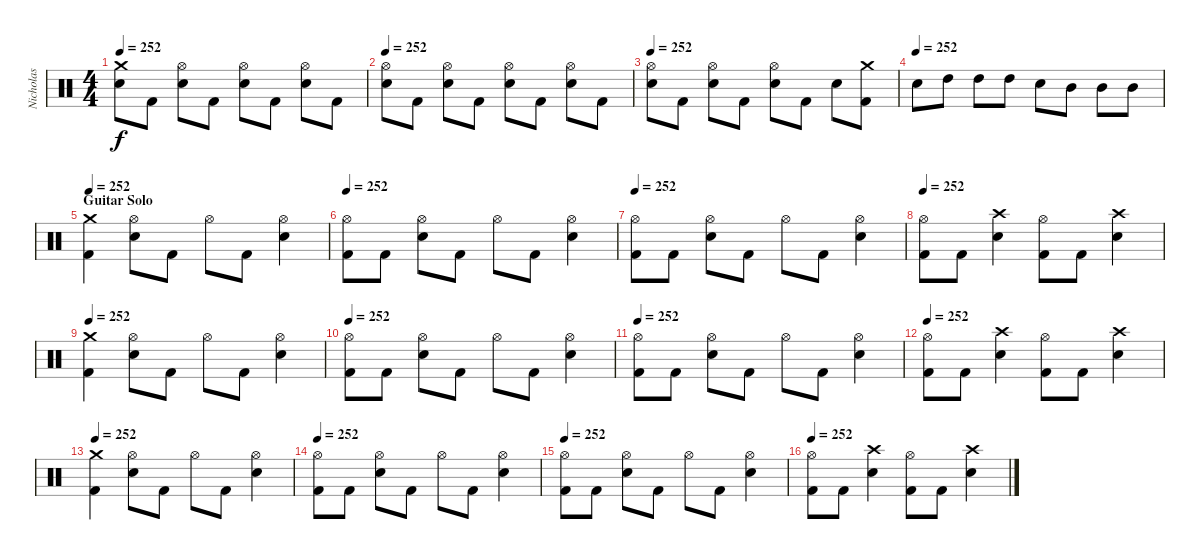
\track ("Nicholas" "Nicholas") {instrument percussion}
\staff {score}
\articulation defaults
\ts (4 4)
\tempo 252
\clef neutral
\ks c
("Crash medium (hit)" "Snare (hit) 2").8{dy f} "Kick (hit) 2".8 ("Hi-Hat (open)" "Snare (hit) 2").8 "Kick (hit) 2".8 ("Hi-Hat (open)" "Snare (hit) 2").8 "Kick (hit) 2".8 ("Hi-Hat (open)" "Snare (hit) 2").8 "Kick (hit) 2".8 |
\tempo 252
("Hi-Hat (open)" "Snare (hit) 2").8 "Kick (hit) 2".8 ("Hi-Hat (open)" "Snare (hit) 2").8 "Kick (hit) 2".8 ("Hi-Hat (open)" "Snare (hit) 2").8 "Kick (hit) 2".8 ("Hi-Hat (open)" "Snare (hit) 2").8 "Kick (hit) 2".8 |
\tempo 252
("Hi-Hat (open)" "Snare (hit) 2").8 "Kick (hit) 2".8 ("Hi-Hat (open)" "Snare (hit) 2").8 "Kick (hit) 2".8 ("Hi-Hat (open)" "Snare (hit) 2").8 "Kick (hit) 2".8 "Snare (hit) 2".8 ("Crash medium (hit)" "Kick (hit) 2").8 |
\tempo (252)
"Snare (hit) 2".8 "High Tom (hit)".8 "High Tom (hit)".8 "High Tom (hit)".8 "Snare (hit) 2".8 "Mid Tom (hit)".8 "Mid Tom (hit)".8 "Mid Tom (hit)".8 |
\section ("" "Guitar Solo")
\tempo 252
("Crash medium (hit)" "Kick (hit) 2").4 ("Hi-Hat (open)" "Snare (hit) 2").8 "Kick (hit) 2".8 "Hi-Hat (open)".8 "Kick (hit) 2".8 ("Hi-Hat (open)" "Snare (hit) 2").4 |
\tempo 252
("Hi-Hat (open)" "Kick (hit) 2").8 "Kick (hit) 2".8 ("Hi-Hat (open)" "Snare (hit) 2").8 "Kick (hit) 2".8 "Hi-Hat (open)".8 "Kick (hit) 2".8 ("Hi-Hat (open)" "Snare (hit) 2").4 |
\tempo 252
("Hi-Hat (open)" "Kick (hit) 2").8 "Kick (hit) 2".8 ("Hi-Hat (open)" "Snare (hit) 2").8 "Kick (hit) 2".8 "Hi-Hat (open)".8 "Kick (hit) 2".8 ("Hi-Hat (open)" "Snare (hit) 2").4 |
\tempo 252
("Hi-Hat (open)" "Kick (hit) 2").8 "Kick (hit) 2".8 ("Crash high (hit)" "Snare (hit) 2").4 ("Hi-Hat (open)" "Kick (hit) 2").8 "Kick (hit) 2".8 ("Crash high (hit)" "Snare (hit) 2").4 |
\tempo 252
("Crash medium (hit)" "Kick (hit) 2").4 ("Hi-Hat (open)" "Snare (hit) 2").8 "Kick (hit) 2".8 "Hi-Hat (open)".8 "Kick (hit) 2".8 ("Hi-Hat (open)" "Snare (hit) 2").4 |
\tempo 252
("Hi-Hat (open)" "Kick (hit) 2").8 "Kick (hit) 2".8 ("Hi-Hat (open)" "Snare (hit) 2").8 "Kick (hit) 2".8 "Hi-Hat (open)".8 "Kick (hit) 2".8 ("Hi-Hat (open)" "Snare (hit) 2").4 |
\tempo 252
("Hi-Hat (open)" "Kick (hit) 2").8 "Kick (hit) 2".8 ("Hi-Hat (open)" "Snare (hit) 2").8 "Kick (hit) 2".8 "Hi-Hat (open)".8 "Kick (hit) 2".8 ("Hi-Hat (open)" "Snare (hit) 2").4 |
\tempo 252
("Hi-Hat (open)" "Kick (hit) 2").8 "Kick (hit) 2".8 ("Crash high (hit)" "Snare (hit) 2").4 ("Hi-Hat (open)" "Kick (hit) 2").8 "Kick (hit) 2".8 ("Crash high (hit)" "Snare (hit) 2").4 |
\tempo 252
("Crash medium (hit)" "Kick (hit) 2").4 ("Hi-Hat (open)" "Snare (hit) 2").8 "Kick (hit) 2".8 "Hi-Hat (open)".8 "Kick (hit) 2".8 ("Hi-Hat (open)" "Snare (hit) 2").4 |
\tempo 252
("Hi-Hat (open)" "Kick (hit) 2").8 "Kick (hit) 2".8 ("Hi-Hat (open)" "Snare (hit) 2").8 "Kick (hit) 2".8 "Hi-Hat (open)".8 "Kick (hit) 2".8 ("Hi-Hat (open)" "Snare (hit) 2").4 |
\tempo 252
("Hi-Hat (open)" "Kick (hit) 2").8 "Kick (hit) 2".8 ("Hi-Hat (open)" "Snare (hit) 2").8 "Kick (hit) 2".8 "Hi-Hat (open)".8 "Kick (hit) 2".8 ("Hi-Hat (open)" "Snare (hit) 2").4 |
\tempo 252
("Hi-Hat (open)" "Kick (hit) 2").8 "Kick (hit) 2".8 ("Crash high (hit)" "Snare (hit) 2").4 ("Hi-Hat (open)" "Kick (hit) 2").8 "Kick (hit) 2".8 ("Crash high (hit)" "Snare (hit) 2").4
